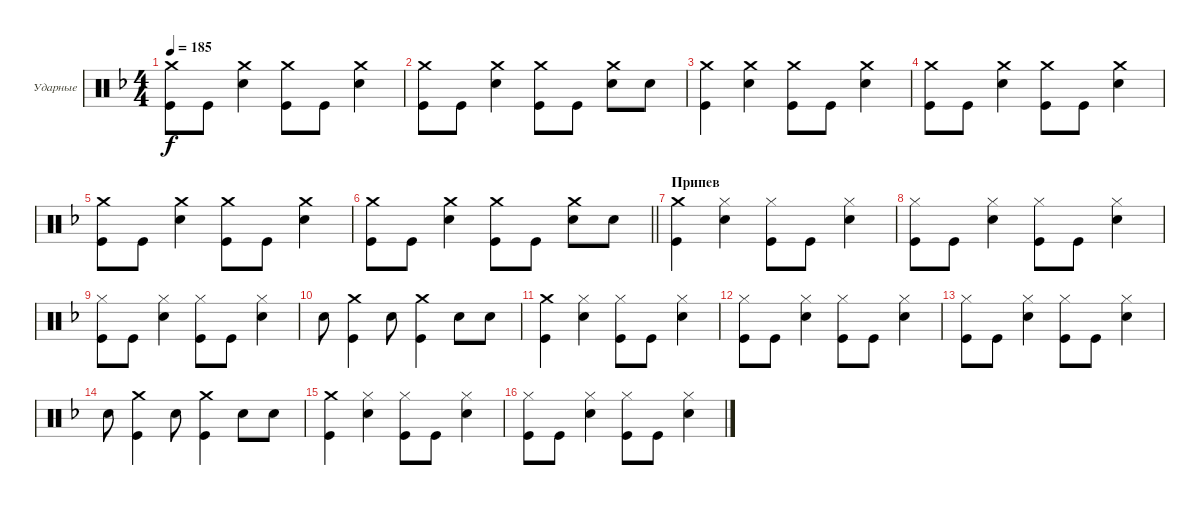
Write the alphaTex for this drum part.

\bracketExtendMode groupsimilarinstruments
\firstSystemTrackNameOrientation horizontal
\otherSystemsTrackNameOrientation horizontal
\track ("Александр Львов" "Ударные") {instrument percussion}
\staff {score}
\articulation defaults
\ts (4 4)
\tempo 185
\clef neutral
\ks dminor
("Kick (hit)" "Crash medium (hit)").8{dy f} "Kick (hit)".8 ("Snare (hit) 2" "Crash medium (hit)").4 ("Kick (hit)" "Crash medium (hit)").8 "Kick (hit)".8 ("Snare (hit) 2" "Crash medium (hit)").4 |
("Kick (hit)" "Crash medium (hit)").8 "Kick (hit)".8 ("Snare (hit) 2" "Crash medium (hit)").4 ("Kick (hit)" "Crash medium (hit)").8 "Kick (hit)".8 ("Snare (hit) 2" "Crash medium (hit)").8 "Snare (hit) 2".8 |
("Kick (hit)" "Crash medium (hit)").4 ("Snare (hit) 2" "Crash medium (hit)").4 ("Kick (hit)" "Crash medium (hit)").8 "Kick (hit)".8 ("Snare (hit) 2" "Crash medium (hit)").4 |
("Kick (hit)" "Crash medium (hit)").8 "Kick (hit)".8 ("Snare (hit) 2" "Crash medium (hit)").4 ("Kick (hit)" "Crash medium (hit)").8 "Kick (hit)".8 ("Snare (hit) 2" "Crash medium (hit)").4 |
("Kick (hit)" "Crash medium (hit)").8 "Kick (hit)".8 ("Snare (hit) 2" "Crash medium (hit)").4 ("Kick (hit)" "Crash medium (hit)").8 "Kick (hit)".8 ("Snare (hit) 2" "Crash medium (hit)").4 |
\barLineRight lightlight
("Kick (hit)" "Crash medium (hit)").8 "Kick (hit)".8 ("Snare (hit) 2" "Crash medium (hit)").4 ("Kick (hit)" "Crash medium (hit)").8 "Kick (hit)".8 ("Snare (hit) 2" "Crash medium (hit)").8 "Snare (hit) 2".8 |
\section ("" "Припев")
("Kick (hit)" "Crash medium (hit)").4 ("Snare (hit) 2" "Hi-Hat (closed)").4 ("Kick (hit)" "Hi-Hat (closed)").8 "Kick (hit)".8 ("Hi-Hat (closed)" "Snare (hit) 2").4 |
("Kick (hit)" "Hi-Hat (closed)").8 "Kick (hit)".8 ("Snare (hit) 2" "Hi-Hat (closed)").4 ("Kick (hit)" "Hi-Hat (closed)").8 "Kick (hit)".8 ("Hi-Hat (closed)" "Snare (hit) 2").4 |
("Kick (hit)" "Hi-Hat (closed)").8 "Kick (hit)".8 ("Snare (hit) 2" "Hi-Hat (closed)").4 ("Kick (hit)" "Hi-Hat (closed)").8 "Kick (hit)".8 ("Hi-Hat (closed)" "Snare (hit) 2").4 |
"Snare (hit) 2".8 ("Kick (hit)" "Crash medium (hit)").4 "Snare (hit) 2".8 ("Kick (hit)" "Crash medium (hit)").4 "Snare (hit) 2".8 "Snare (hit) 2".8 |
("Kick (hit)" "Crash medium (hit)").4 ("Snare (hit) 2" "Hi-Hat (closed)").4 ("Kick (hit)" "Hi-Hat (closed)").8 "Kick (hit)".8 ("Hi-Hat (closed)" "Snare (hit) 2").4 |
("Kick (hit)" "Hi-Hat (closed)").8 "Kick (hit)".8 ("Snare (hit) 2" "Hi-Hat (closed)").4 ("Kick (hit)" "Hi-Hat (closed)").8 "Kick (hit)".8 ("Hi-Hat (closed)" "Snare (hit) 2").4 |
("Kick (hit)" "Hi-Hat (closed)").8 "Kick (hit)".8 ("Snare (hit) 2" "Hi-Hat (closed)").4 ("Kick (hit)" "Hi-Hat (closed)").8 "Kick (hit)".8 ("Hi-Hat (closed)" "Snare (hit) 2").4 |
"Snare (hit) 2".8 ("Kick (hit)" "Crash medium (hit)").4 "Snare (hit) 2".8 ("Kick (hit)" "Crash medium (hit)").4 "Snare (hit) 2".8 "Snare (hit) 2".8 |
("Kick (hit)" "Crash medium (hit)").4 ("Snare (hit) 2" "Hi-Hat (closed)").4 ("Kick (hit)" "Hi-Hat (closed)").8 "Kick (hit)".8 ("Hi-Hat (closed)" "Snare (hit) 2").4 |
("Kick (hit)" "Hi-Hat (closed)").8 "Kick (hit)".8 ("Snare (hit) 2" "Hi-Hat (closed)").4 ("Kick (hit)" "Hi-Hat (closed)").8 "Kick (hit)".8 ("Hi-Hat (closed)" "Snare (hit) 2").4
